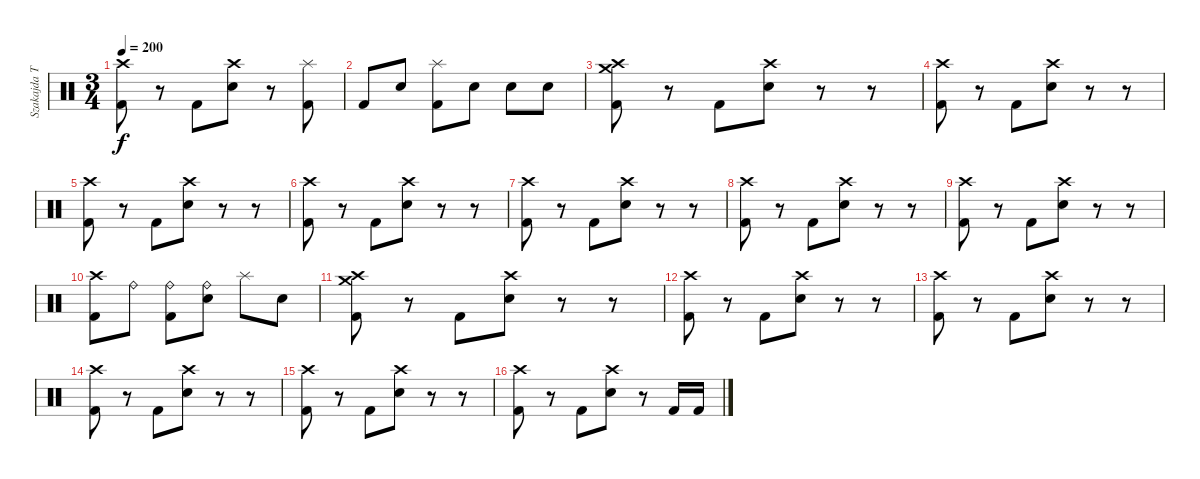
\track ("Szakajda Tibi" "Szakajda T") {instrument percussion}
\staff {score}
\articulation defaults
\ts (3 4)
\tempo 200
\clef neutral
\ks c
("Crash high (hit)" "Kick (hit) 2").8{dy f} r.8 "Kick (hit) 2".8 ("Crash high (hit)" "Electric Snare (hit)").8 r.8 ("Splash (hit)" "Kick (hit) 2").8 |
"Kick (hit) 2".8 "Electric Snare (hit)".8 ("Splash (hit)" "Kick (hit) 2").8 "Electric Snare (hit)".8 "Electric Snare (hit)".8 "Electric Snare (hit)".8 |
("Crash high (hit)" "Crash medium (hit)" "Kick (hit) 2").8 r.8 "Kick (hit) 2".8 ("Crash high (hit)" "Electric Snare (hit)").8 r.8 r.8 |
("Crash high (hit)" "Kick (hit) 2").8 r.8 "Kick (hit) 2".8 ("Crash high (hit)" "Electric Snare (hit)").8 r.8 r.8 |
("Crash high (hit)" "Kick (hit) 2").8 r.8 "Kick (hit) 2".8 ("Crash high (hit)" "Electric Snare (hit)").8 r.8 r.8 |
("Crash high (hit)" "Kick (hit) 2").8 r.8 "Kick (hit) 2".8 ("Crash high (hit)" "Electric Snare (hit)").8 r.8 r.8 |
("Crash high (hit)" "Kick (hit) 2").8 r.8 "Kick (hit) 2".8 ("Crash high (hit)" "Electric Snare (hit)").8 r.8 r.8 |
("Crash high (hit)" "Kick (hit) 2").8 r.8 "Kick (hit) 2".8 ("Crash high (hit)" "Electric Snare (hit)").8 r.8 r.8 |
("Crash high (hit)" "Kick (hit) 2").8 r.8 "Kick (hit) 2".8 ("Crash high (hit)" "Electric Snare (hit)").8 r.8 r.8 |
("Crash high (hit)" "Kick (hit) 2").8 "Ride (bell)".8 ("Ride (bell)" "Kick (hit) 2").8 ("Ride (bell)" "Electric Snare (hit)").8 "Splash (hit)".8 "Electric Snare (hit)".8 |
("Crash high (hit)" "Crash medium (hit)" "Kick (hit) 2").8 r.8 "Kick (hit) 2".8 ("Crash high (hit)" "Electric Snare (hit)").8 r.8 r.8 |
("Crash high (hit)" "Kick (hit) 2").8 r.8 "Kick (hit) 2".8 ("Crash high (hit)" "Electric Snare (hit)").8 r.8 r.8 |
("Crash high (hit)" "Kick (hit) 2").8 r.8 "Kick (hit) 2".8 ("Crash high (hit)" "Electric Snare (hit)").8 r.8 r.8 |
("Crash high (hit)" "Kick (hit) 2").8 r.8 "Kick (hit) 2".8 ("Crash high (hit)" "Electric Snare (hit)").8 r.8 r.8 |
("Crash high (hit)" "Kick (hit) 2").8 r.8 "Kick (hit) 2".8 ("Crash high (hit)" "Electric Snare (hit)").8 r.8 r.8 |
("Crash high (hit)" "Kick (hit) 2").8 r.8 "Kick (hit) 2".8 ("Crash high (hit)" "Electric Snare (hit)").8 r.8 "Kick (hit) 2".16 "Kick (hit) 2".16
